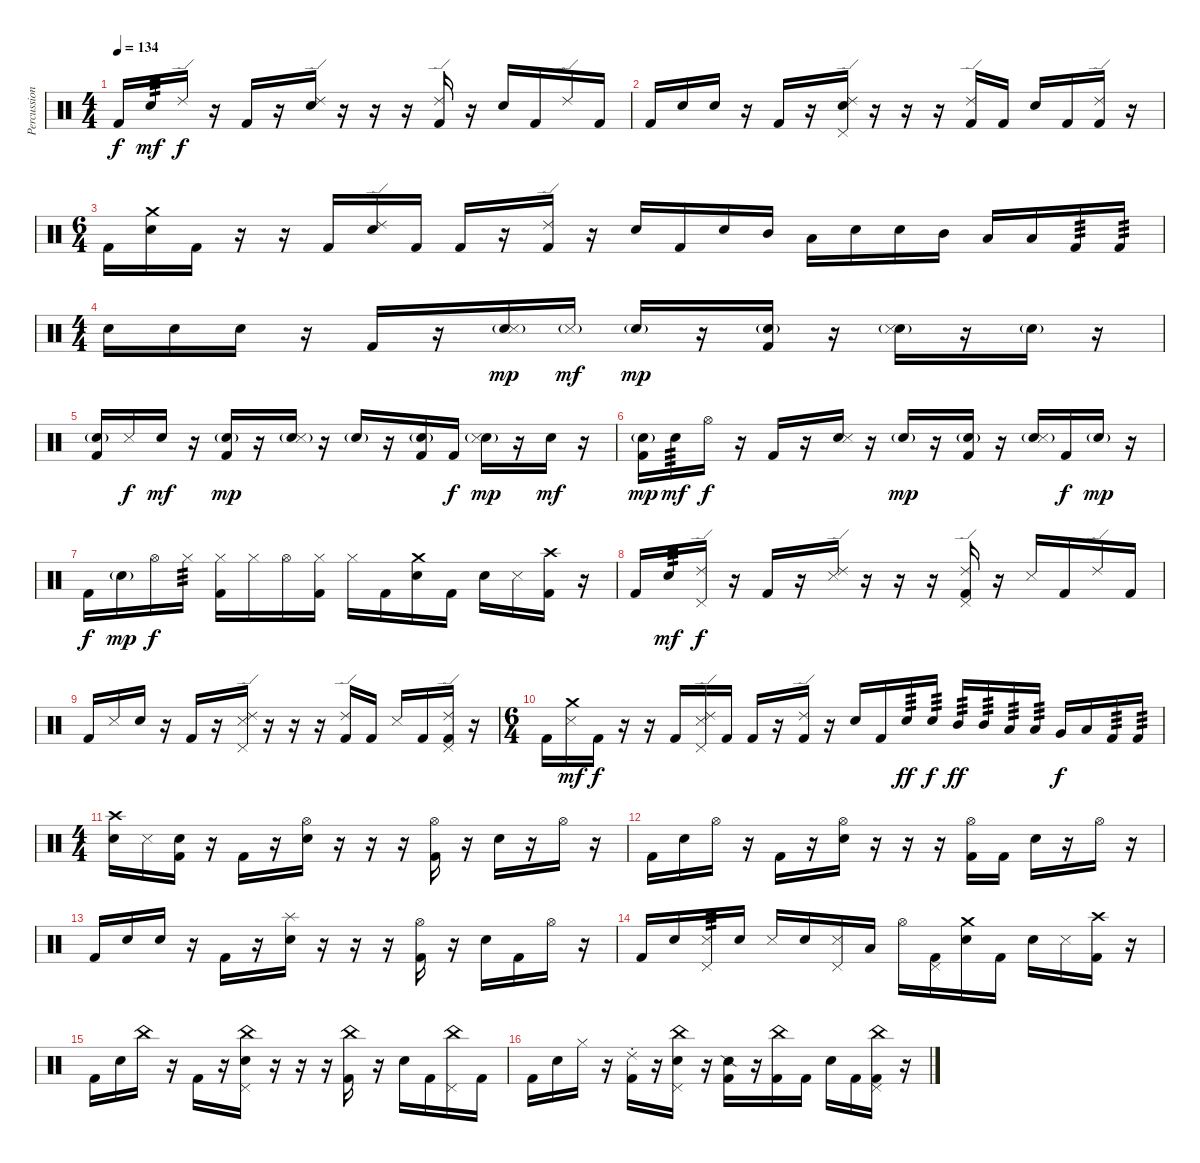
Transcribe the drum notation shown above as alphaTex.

\track ("Percussion" "Percussion") {instrument percussion}
\staff {score}
\articulation defaults
\ts (4 4)
\tempo 134
\clef neutral
\ks c "Kick (hit) 2".16{dy f} "Snare (hit) 2".16{tp 3 dy mf} "Ride (edge) 2".16{dy f}
r.16 "Kick (hit) 2".16 r.16 ("Ride (edge) 2" "Snare (hit) 2").16 r.16 r.16 r.16 ("Ride (edge) 2" "Kick (hit) 2").16 r.16 "Snare (hit) 2".16 "Kick (hit) 2".16 "Ride (edge) 2".16 "Kick (hit) 2".16 |
"Kick (hit) 2".16 "Snare (hit) 2".16 "Snare (hit)".16 r.16 "Kick (hit) 2".16 r.16 ("Ride (edge) 2" "Pedal Hi-Hat (hit)" "Snare (hit) 2").16 r.16 r.16 r.16 ("Ride (edge) 2" "Kick (hit) 2").16 "Kick (hit) 2".16 "Snare (hit) 2".16 "Kick (hit) 2".16 ("Ride (edge) 2" "Kick (hit) 2").16 r.16 |
\ts (6 4)
"Kick (hit) 2".16 ("Crash medium (hit)" "Snare (hit) 2").16 "Kick (hit) 2".16 r.16 r.16 "Kick (hit) 2".16 ("Ride (edge) 2" "Snare (hit) 2").16 "Kick (hit) 2".16 "Kick (hit) 2".16 r.16 ("Ride (edge) 2" "Kick (hit) 2").16 r.16 "Snare (hit) 2".16 "Kick (hit) 2".16 "Snare (hit) 2".16 "Mid Tom (hit)".16 "Low Tom (hit)".16 "Snare (hit) 2".16 "Snare (hit) 2".16 "Mid Tom (hit)".16 "Low Tom (hit)".16 "Low Tom (hit)".16 "Kick (hit) 2".16{tp 3} "Kick (hit) 2".16{tp 3} |
\ts (4 4)
"Electric Snare (hit)".16 "Electric Snare (hit)".16 "Snare (hit)".16 r.16 "Kick (hit) 2".16 r.16 ("Snare (hit)"{g} "Snare (side stick) 3").16{dy mp} "Snare (side stick) 3"{g}.16{dy mf} "Snare (hit)"{g}.16{dy mp} r.16 ("Snare (hit)"{g} "Kick (hit) 2").16 r.16 ("Snare (hit)"{g} "Snare (side stick) 3").16 r.16 "Snare (hit)"{g}.16 r.16 |
("Snare (hit)"{g} "Kick (hit) 2").16 "Snare (side stick) 3".16{dy f} "Snare (hit)".16{dy mf} r.16 ("Snare (hit)"{g} "Kick (hit) 2").16{dy mp} r.16 ("Snare (hit)"{g} "Snare (side stick) 3").16 r.16 "Snare (hit)"{g}.16 r.16 ("Snare (hit)"{g} "Kick (hit) 2").16 "Kick (hit) 2".16{dy f} ("Snare (hit)"{g} "Snare (side stick) 3").16{dy mp} r.16 "Snare (hit)".16{dy mf} r.16 |
("Snare (hit)"{g} "Kick (hit) 2").16{dy mp} "Snare (hit) 2".16{tp 3 dy mf} "Hi-Hat (open)".16{dy f} r.16 "Kick (hit) 2".16 r.16 ("Snare (hit)" "Snare (side stick) 3").16 r.16 "Snare (hit)"{g}.16{dy mp} r.16 ("Snare (hit)"{g} "Kick (hit) 2").16 r.16 ("Snare (hit)"{g} "Snare (side stick) 3").16 "Kick (hit) 2".16{dy f} "Snare (hit)"{g}.16{dy mp} r.16 |
"Kick (hit) 2".16{dy f} "Snare (hit) 2"{g}.16{dy mp} "Hi-Hat (open)".16{dy f} "Hi-Hat (closed)".16{tp 3} ("Hi-Hat (closed)" "Kick (hit) 2").16 "Hi-Hat (closed)".16 "Hi-Hat (open)".16 ("Hi-Hat (closed)" "Kick (hit) 2").16 "Hi-Hat (closed)".16 "Kick (hit) 2".16 ("Crash medium (hit)" "Snare (hit) 2").16 "Kick (hit) 2".16 "Snare (hit) 2".16 "Metronome (hit)".16 ("Crash high (hit)" "Kick (hit) 2").16 r.16 |
"Kick (hit) 2".16 "Snare (hit) 2".16{tp 3 dy mf} ("Ride (edge) 2" "Pedal Hi-Hat (hit)").16{dy f} r.16 "Kick (hit) 2".16 r.16 ("Ride (edge) 2" "Snare (side stick) 3").16 r.16 r.16 r.16 ("Ride (edge) 2" "Pedal Hi-Hat (hit)" "Kick (hit) 2").16 r.16 "Snare (side stick) 3".16 "Kick (hit) 2".16 "Ride (edge) 2".16 "Kick (hit) 2".16 |
"Kick (hit) 2".16 "Snare (side stick) 3".16 "Snare (hit)".16 r.16 "Kick (hit) 2".16 r.16 ("Ride (edge) 2" "Pedal Hi-Hat (hit)" "Snare (side stick) 3").16 r.16 r.16 r.16 ("Ride (edge) 2" "Kick (hit) 2").16 "Kick (hit) 2".16 "Snare (side stick) 3".16 "Kick (hit) 2".16 ("Ride (edge) 2" "Pedal Hi-Hat (hit)" "Kick (hit) 2").16 r.16 |
\ts (6 4)
"Kick (hit) 2".16 ("Crash medium (hit)" "Snare (side stick) 3").16{dy mf} "Kick (hit) 2".16{dy f} r.16 r.16 "Kick (hit) 2".16 ("Ride (edge) 2" "Pedal Hi-Hat (hit)" "Snare (side stick) 3").16 "Kick (hit) 2".16 "Kick (hit) 2".16 r.16 ("Ride (edge) 2" "Kick (hit) 2").16 r.16 "Snare (hit) 2".16 "Kick (hit) 2".16 "Snare (hit) 2".16{tp 3 dy ff} "Snare (hit) 2".16{tp 3 dy f} "Mid Tom (hit)".16{tp 3 dy ff} "Mid Tom (hit)".16{tp 3} "Low Tom (hit)".16{tp 3} "Low Tom (hit)".16{tp 3} "Very Low Tom (hit)".16{dy f} "Low Floor Tom (hit)".16 "Kick (hit) 2".16{tp 3} "Kick (hit) 2".16{tp 3} |
\ts (4 4)
("Crash high (hit)" "Snare (hit) 2").16 "Metronome (hit)".16 ("Snare (hit)" "Kick (hit) 2").16 r.16 "Kick (hit) 2".16 r.16 ("Hi-Hat (open)" "Snare (hit) 2").16 r.16 r.16 r.16 ("Hi-Hat (open)" "Kick (hit) 2").16 r.16 "Snare (hit) 2".16 r.16 "Hi-Hat (open)".16 r.16 |
"Kick (hit) 2".16 "Snare (hit) 2".16 "Hi-Hat (open)".16 r.16 "Kick (hit) 2".16 r.16 ("Hi-Hat (open)" "Snare (hit) 2").16 r.16 r.16 r.16 ("Hi-Hat (open)" "Kick (hit) 2").16 "Kick (hit) 2".16 "Snare (hit) 2".16 r.16 "Hi-Hat (open)".16 r.16 |
"Kick (hit) 2".16 "Snare (hit) 2".16 "Snare (hit)".16 r.16 "Kick (hit) 2".16 r.16 ("Splash (hit)" "Snare (hit) 2").16 r.16 r.16 r.16 ("Hi-Hat (open)" "Kick (hit) 2").16 r.16 "Snare (hit) 2".16 "Kick (hit) 2".16 "Hi-Hat (open)".16 r.16 |
"Kick (hit) 2".16 "Snare (hit) 2".16 ("Pedal Hi-Hat (hit)" "Metronome (hit)").16{tp 3} "Snare (hit) 2".16 "Metronome (hit)".16 "Snare (hit) 2".16 ("Pedal Hi-Hat (hit)" "Metronome (hit)").16 "Low Tom (hit)".16 "Hi-Hat (open)".16 ("Pedal Hi-Hat (hit)" "Kick (hit) 2").16 ("Crash medium (hit)" "Snare (hit) 2").16 "Kick (hit) 2".16 "Snare (hit) 2".16 "Metronome (hit)".16 ("Crash high (hit)" "Kick (hit) 2").16 r.16 |
"Kick (hit) 2".16 "Snare (hit) 2".16 "China (hit)".16 r.16 "Kick (hit) 2".16 r.16 ("China (hit)" "Pedal Hi-Hat (hit)" "Snare (hit) 2").16 r.16 r.16 r.16 ("China (hit)" "Kick (hit) 2").16 r.16 "Snare (hit) 2".16 "Kick (hit) 2".16 ("China (hit)" "Pedal Hi-Hat (hit)").16 "Kick (hit) 2".16 |
"Kick (hit) 2".16 "Snare (hit) 2".16 "Hi-Hat (closed)".16 r.16 ("Ride (choke) 2" "Kick (hit) 2").16 r.16 ("China (hit)" "Pedal Hi-Hat (hit)" "Snare (hit) 2").16 r.16 ("Snare (side stick) 2" "Kick (hit) 2").16 r.16 ("China (hit)" "Kick (hit) 2").16 "Kick (hit) 2".16 "Snare (hit) 2".16 "Kick (hit) 2".16 ("China (hit)" "Pedal Hi-Hat (hit)" "Kick (hit) 2").16 r.16
